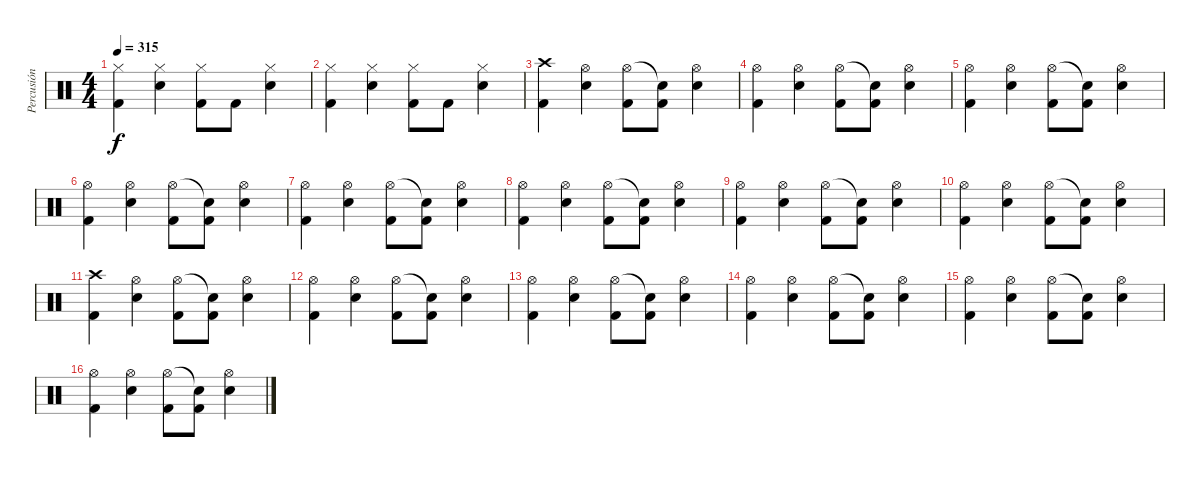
\track ("Percusión" "Percusión") {instrument percussion}
\staff {score}
\articulation defaults
\ts (4 4)
\tempo 315
\clef neutral
\ks c
("Hi-Hat (closed)" "Kick (hit) 2").4{dy f} ("Hi-Hat (closed)" "Snare (hit) 2").4 ("Hi-Hat (closed)" "Kick (hit) 2").8 "Kick (hit) 2".8 ("Hi-Hat (closed)" "Snare (hit) 2").4 |
("Hi-Hat (closed)" "Kick (hit) 2").4 ("Hi-Hat (closed)" "Snare (hit) 2").4 ("Hi-Hat (closed)" "Kick (hit) 2").8 "Kick (hit) 2".8 ("Hi-Hat (closed)" "Snare (hit) 2").4 |
("Crash high (hit)" "Kick (hit) 2").4 ("Hi-Hat (open)" "Snare (hit) 2").4 ("Hi-Hat (open)" "Kick (hit) 2").8 ("Snare (hit)"{t} "Kick (hit) 2").8 ("Hi-Hat (open)" "Snare (hit) 2").4 |
("Hi-Hat (open)" "Kick (hit) 2").4 ("Hi-Hat (open)" "Snare (hit) 2").4 ("Hi-Hat (open)" "Kick (hit) 2").8 ("Snare (hit)"{t} "Kick (hit) 2").8 ("Hi-Hat (open)" "Snare (hit) 2").4 |
("Hi-Hat (open)" "Kick (hit) 2").4 ("Hi-Hat (open)" "Snare (hit) 2").4 ("Hi-Hat (open)" "Kick (hit) 2").8 ("Snare (hit)"{t} "Kick (hit) 2").8 ("Hi-Hat (open)" "Snare (hit) 2").4 |
("Hi-Hat (open)" "Kick (hit) 2").4 ("Hi-Hat (open)" "Snare (hit) 2").4 ("Hi-Hat (open)" "Kick (hit) 2").8 ("Snare (hit)"{t} "Kick (hit) 2").8 ("Hi-Hat (open)" "Snare (hit) 2").4 |
("Hi-Hat (open)" "Kick (hit) 2").4 ("Hi-Hat (open)" "Snare (hit) 2").4 ("Hi-Hat (open)" "Kick (hit) 2").8 ("Snare (hit)"{t} "Kick (hit) 2").8 ("Hi-Hat (open)" "Snare (hit) 2").4 |
("Hi-Hat (open)" "Kick (hit) 2").4 ("Hi-Hat (open)" "Snare (hit) 2").4 ("Hi-Hat (open)" "Kick (hit) 2").8 ("Snare (hit)"{t} "Kick (hit) 2").8 ("Hi-Hat (open)" "Snare (hit) 2").4 |
("Hi-Hat (open)" "Kick (hit) 2").4 ("Hi-Hat (open)" "Snare (hit) 2").4 ("Hi-Hat (open)" "Kick (hit) 2").8 ("Snare (hit)"{t} "Kick (hit) 2").8 ("Hi-Hat (open)" "Snare (hit) 2").4 |
("Hi-Hat (open)" "Kick (hit) 2").4 ("Hi-Hat (open)" "Snare (hit) 2").4 ("Hi-Hat (open)" "Kick (hit) 2").8 ("Snare (hit)"{t} "Kick (hit) 2").8 ("Hi-Hat (open)" "Snare (hit) 2").4 |
("Crash high (hit)" "Kick (hit) 2").4 ("Hi-Hat (open)" "Snare (hit) 2").4 ("Hi-Hat (open)" "Kick (hit) 2").8 ("Snare (hit)"{t} "Kick (hit) 2").8 ("Hi-Hat (open)" "Snare (hit) 2").4 |
("Hi-Hat (open)" "Kick (hit) 2").4 ("Hi-Hat (open)" "Snare (hit) 2").4 ("Hi-Hat (open)" "Kick (hit) 2").8 ("Snare (hit)"{t} "Kick (hit) 2").8 ("Hi-Hat (open)" "Snare (hit) 2").4 |
("Hi-Hat (open)" "Kick (hit) 2").4 ("Hi-Hat (open)" "Snare (hit) 2").4 ("Hi-Hat (open)" "Kick (hit) 2").8 ("Snare (hit)"{t} "Kick (hit) 2").8 ("Hi-Hat (open)" "Snare (hit) 2").4 |
("Hi-Hat (open)" "Kick (hit) 2").4 ("Hi-Hat (open)" "Snare (hit) 2").4 ("Hi-Hat (open)" "Kick (hit) 2").8 ("Snare (hit)"{t} "Kick (hit) 2").8 ("Hi-Hat (open)" "Snare (hit) 2").4 |
("Hi-Hat (open)" "Kick (hit) 2").4 ("Hi-Hat (open)" "Snare (hit) 2").4 ("Hi-Hat (open)" "Kick (hit) 2").8 ("Snare (hit)"{t} "Kick (hit) 2").8 ("Hi-Hat (open)" "Snare (hit) 2").4 |
("Hi-Hat (open)" "Kick (hit) 2").4 ("Hi-Hat (open)" "Snare (hit) 2").4 ("Hi-Hat (open)" "Kick (hit) 2").8 ("Snare (hit)"{t} "Kick (hit) 2").8 ("Hi-Hat (open)" "Snare (hit) 2").4
